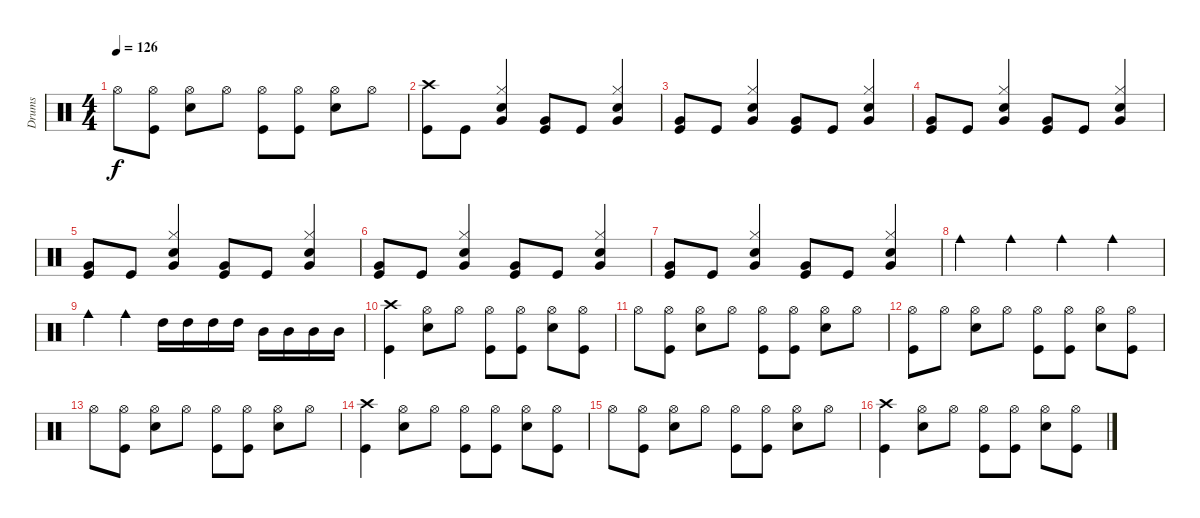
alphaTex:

\track ("Drums" "Drums") {instrument percussion}
\staff {score}
\articulation defaults
\ts (4 4)
\tempo 126
\clef neutral
\ks c "Hi-Hat (open)".8{dy f}
("Hi-Hat (open)" "Kick (hit)").8 ("Snare (hit) 2" "Hi-Hat (open)").8 "Hi-Hat (open)".8 ("Hi-Hat (open)" "Kick (hit)").8 ("Hi-Hat (open)" "Kick (hit)").8 ("Hi-Hat (open)" "Snare (hit) 2").8 "Hi-Hat (open)".8 |
("Crash high (hit)" "Kick (hit)").8 "Kick (hit)".8 ("Hi-Hat (closed)" "Very Low Tom (hit)" "Snare (hit) 2").4 ("Very Low Tom (hit)" "Kick (hit)").8 "Kick (hit)".8 ("Hi-Hat (closed)" "Very Low Tom (hit)" "Snare (hit) 2").4 |
("Very Low Tom (hit)" "Kick (hit)").8 "Kick (hit)".8 ("Hi-Hat (closed)" "Snare (hit) 2" "Very Low Tom (hit)").4 ("Very Low Tom (hit)" "Kick (hit)").8 "Kick (hit)".8 ("Hi-Hat (closed)" "Very Low Tom (hit)" "Snare (hit) 2").4 |
("Very Low Tom (hit)" "Kick (hit)").8 "Kick (hit)".8 ("Hi-Hat (closed)" "Very Low Tom (hit)" "Snare (hit) 2").4 ("Very Low Tom (hit)" "Kick (hit)").8 "Kick (hit)".8 ("Hi-Hat (closed)" "Very Low Tom (hit)" "Snare (hit) 2").4 |
("Very Low Tom (hit)" "Kick (hit)").8 "Kick (hit)".8 ("Snare (hit) 2" "Very Low Tom (hit)" "Hi-Hat (closed)").4 ("Very Low Tom (hit)" "Kick (hit)").8 "Kick (hit)".8 ("Very Low Tom (hit)" "Snare (hit) 2" "Hi-Hat (closed)").4 |
("Very Low Tom (hit)" "Kick (hit)").8 "Kick (hit)".8 ("Hi-Hat (closed)" "Very Low Tom (hit)" "Snare (hit) 2").4 ("Very Low Tom (hit)" "Kick (hit)").8 "Kick (hit)".8 ("Hi-Hat (closed)" "Very Low Tom (hit)" "Snare (hit) 2").4 |
("Very Low Tom (hit)" "Kick (hit)").8 "Kick (hit)".8 ("Hi-Hat (closed)" "Snare (hit) 2" "Very Low Tom (hit)").4 ("Very Low Tom (hit)" "Kick (hit)").8 "Kick (hit)".8 ("Hi-Hat (closed)" "Very Low Tom (hit)" "Snare (hit) 2").4 |
"Cowbell medium (hit)".4 "Cowbell medium (hit)".4 "Cowbell medium (hit)".4 "Cowbell medium (hit)".4 |
"Cowbell medium (hit)".4 "Cowbell medium (hit)".4 "High Tom (hit)".16 "High Tom (hit)".16 "High Tom (hit)".16 "High Tom (hit)".16 "Mid Tom (hit)".16 "Mid Tom (hit)".16 "Mid Tom (hit)".16 "Mid Tom (hit)".16 |
("Crash high (hit)" "Kick (hit)").4 ("Hi-Hat (open)" "Snare (hit) 2").8 "Hi-Hat (open)".8 ("Hi-Hat (open)" "Kick (hit)").8 ("Hi-Hat (open)" "Kick (hit)").8 ("Hi-Hat (open)" "Snare (hit) 2").8 ("Hi-Hat (open)" "Kick (hit)").8 |
"Hi-Hat (open)".8 ("Hi-Hat (open)" "Kick (hit)").8 ("Snare (hit) 2" "Hi-Hat (open)").8 "Hi-Hat (open)".8 ("Hi-Hat (open)" "Kick (hit)").8 ("Hi-Hat (open)" "Kick (hit)").8 ("Hi-Hat (open)" "Snare (hit) 2").8 "Hi-Hat (open)".8 |
("Hi-Hat (open)" "Kick (hit)").8 "Hi-Hat (open)".8 ("Hi-Hat (open)" "Snare (hit) 2").8 "Hi-Hat (open)".8 ("Hi-Hat (open)" "Kick (hit)").8 ("Hi-Hat (open)" "Kick (hit)").8 ("Hi-Hat (open)" "Snare (hit) 2").8 ("Hi-Hat (open)" "Kick (hit)").8 |
"Hi-Hat (open)".8 ("Hi-Hat (open)" "Kick (hit)").8 ("Snare (hit) 2" "Hi-Hat (open)").8 "Hi-Hat (open)".8 ("Hi-Hat (open)" "Kick (hit)").8 ("Hi-Hat (open)" "Kick (hit)").8 ("Hi-Hat (open)" "Snare (hit) 2").8 "Hi-Hat (open)".8 |
("Crash high (hit)" "Kick (hit)").4 ("Hi-Hat (open)" "Snare (hit) 2").8 "Hi-Hat (open)".8 ("Hi-Hat (open)" "Kick (hit)").8 ("Hi-Hat (open)" "Kick (hit)").8 ("Hi-Hat (open)" "Snare (hit) 2").8 ("Hi-Hat (open)" "Kick (hit)").8 |
"Hi-Hat (open)".8 ("Hi-Hat (open)" "Kick (hit)").8 ("Snare (hit) 2" "Hi-Hat (open)").8 "Hi-Hat (open)".8 ("Hi-Hat (open)" "Kick (hit)").8 ("Hi-Hat (open)" "Kick (hit)").8 ("Hi-Hat (open)" "Snare (hit) 2").8 "Hi-Hat (open)".8 |
("Crash high (hit)" "Kick (hit)").4 ("Hi-Hat (open)" "Snare (hit) 2").8 "Hi-Hat (open)".8 ("Hi-Hat (open)" "Kick (hit)").8 ("Hi-Hat (open)" "Kick (hit)").8 ("Hi-Hat (open)" "Snare (hit) 2").8 ("Hi-Hat (open)" "Kick (hit)").8
